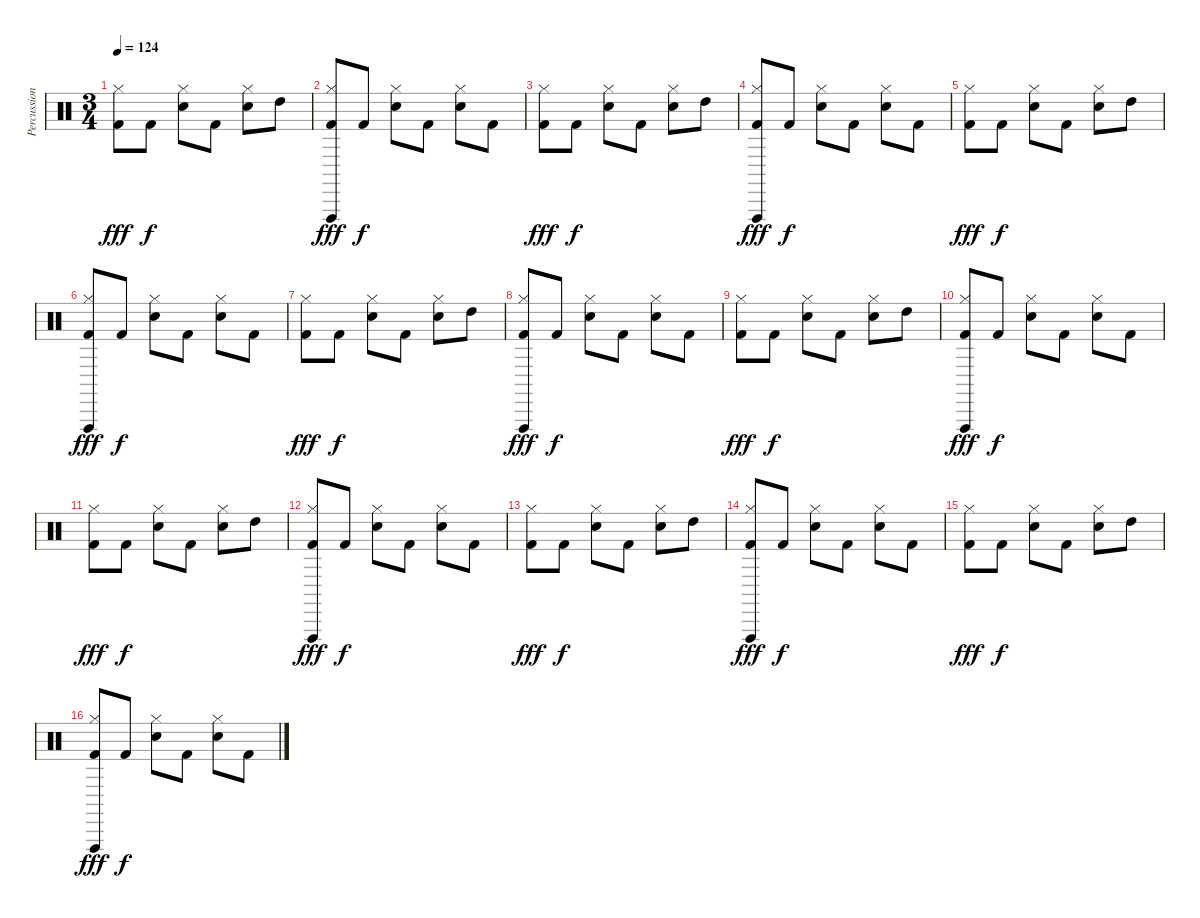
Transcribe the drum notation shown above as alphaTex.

\track ("Percussion" "Percussion") {instrument percussion}
\staff {score}
\articulation defaults
\ts (3 4)
\tempo 124
\clef neutral
\ks c
("Hi-Hat (closed)" "Kick (hit) 2").8{dy fff} "Kick (hit) 2".8{dy f} ("Hi-Hat (closed)" "Hand Clap (hit)").8 "Kick (hit) 2".8 ("Hi-Hat (closed)" "Hand Clap (hit)").8 "High Tom (hit)".8 |
("Hi-Hat (closed)" "Vibraslap (hit)" "Kick (hit) 2").8{dy fff} "Kick (hit) 2".8{dy f} ("Hi-Hat (closed)" "Hand Clap (hit)").8 "Kick (hit) 2".8 ("Hi-Hat (closed)" "Hand Clap (hit)").8 "Kick (hit) 2".8 |
("Hi-Hat (closed)" "Kick (hit) 2").8{dy fff} "Kick (hit) 2".8{dy f} ("Hi-Hat (closed)" "Hand Clap (hit)").8 "Kick (hit) 2".8 ("Hi-Hat (closed)" "Hand Clap (hit)").8 "High Tom (hit)".8 |
("Hi-Hat (closed)" "Vibraslap (hit)" "Kick (hit) 2").8{dy fff} "Kick (hit) 2".8{dy f} ("Hi-Hat (closed)" "Hand Clap (hit)").8 "Kick (hit) 2".8 ("Hi-Hat (closed)" "Hand Clap (hit)").8 "Kick (hit) 2".8 |
("Hi-Hat (closed)" "Kick (hit) 2").8{dy fff} "Kick (hit) 2".8{dy f} ("Hi-Hat (closed)" "Hand Clap (hit)").8 "Kick (hit) 2".8 ("Hi-Hat (closed)" "Hand Clap (hit)").8 "High Tom (hit)".8 |
("Hi-Hat (closed)" "Vibraslap (hit)" "Kick (hit) 2").8{dy fff} "Kick (hit) 2".8{dy f} ("Hi-Hat (closed)" "Hand Clap (hit)").8 "Kick (hit) 2".8 ("Hi-Hat (closed)" "Hand Clap (hit)").8 "Kick (hit) 2".8 |
("Hi-Hat (closed)" "Kick (hit) 2").8{dy fff} "Kick (hit) 2".8{dy f} ("Hi-Hat (closed)" "Hand Clap (hit)").8 "Kick (hit) 2".8 ("Hi-Hat (closed)" "Hand Clap (hit)").8 "High Tom (hit)".8 |
("Hi-Hat (closed)" "Vibraslap (hit)" "Kick (hit) 2").8{dy fff} "Kick (hit) 2".8{dy f} ("Hi-Hat (closed)" "Hand Clap (hit)").8 "Kick (hit) 2".8 ("Hi-Hat (closed)" "Hand Clap (hit)").8 "Kick (hit) 2".8 |
("Hi-Hat (closed)" "Kick (hit) 2").8{dy fff} "Kick (hit) 2".8{dy f} ("Hi-Hat (closed)" "Hand Clap (hit)").8 "Kick (hit) 2".8 ("Hi-Hat (closed)" "Hand Clap (hit)").8 "High Tom (hit)".8 |
("Hi-Hat (closed)" "Vibraslap (hit)" "Kick (hit) 2").8{dy fff} "Kick (hit) 2".8{dy f} ("Hi-Hat (closed)" "Hand Clap (hit)").8 "Kick (hit) 2".8 ("Hi-Hat (closed)" "Hand Clap (hit)").8 "Kick (hit) 2".8 |
("Hi-Hat (closed)" "Kick (hit) 2").8{dy fff} "Kick (hit) 2".8{dy f} ("Hi-Hat (closed)" "Hand Clap (hit)").8 "Kick (hit) 2".8 ("Hi-Hat (closed)" "Hand Clap (hit)").8 "High Tom (hit)".8 |
("Hi-Hat (closed)" "Vibraslap (hit)" "Kick (hit) 2").8{dy fff} "Kick (hit) 2".8{dy f} ("Hi-Hat (closed)" "Hand Clap (hit)").8 "Kick (hit) 2".8 ("Hi-Hat (closed)" "Hand Clap (hit)").8 "Kick (hit) 2".8 |
("Hi-Hat (closed)" "Kick (hit) 2").8{dy fff} "Kick (hit) 2".8{dy f} ("Hi-Hat (closed)" "Hand Clap (hit)").8 "Kick (hit) 2".8 ("Hi-Hat (closed)" "Hand Clap (hit)").8 "High Tom (hit)".8 |
("Hi-Hat (closed)" "Vibraslap (hit)" "Kick (hit) 2").8{dy fff} "Kick (hit) 2".8{dy f} ("Hi-Hat (closed)" "Hand Clap (hit)").8 "Kick (hit) 2".8 ("Hi-Hat (closed)" "Hand Clap (hit)").8 "Kick (hit) 2".8 |
("Hi-Hat (closed)" "Kick (hit) 2").8{dy fff} "Kick (hit) 2".8{dy f} ("Hi-Hat (closed)" "Hand Clap (hit)").8 "Kick (hit) 2".8 ("Hi-Hat (closed)" "Hand Clap (hit)").8 "High Tom (hit)".8 |
("Hi-Hat (closed)" "Vibraslap (hit)" "Kick (hit) 2").8{dy fff} "Kick (hit) 2".8{dy f} ("Hi-Hat (closed)" "Hand Clap (hit)").8 "Kick (hit) 2".8 ("Hi-Hat (closed)" "Hand Clap (hit)").8 "Kick (hit) 2".8
